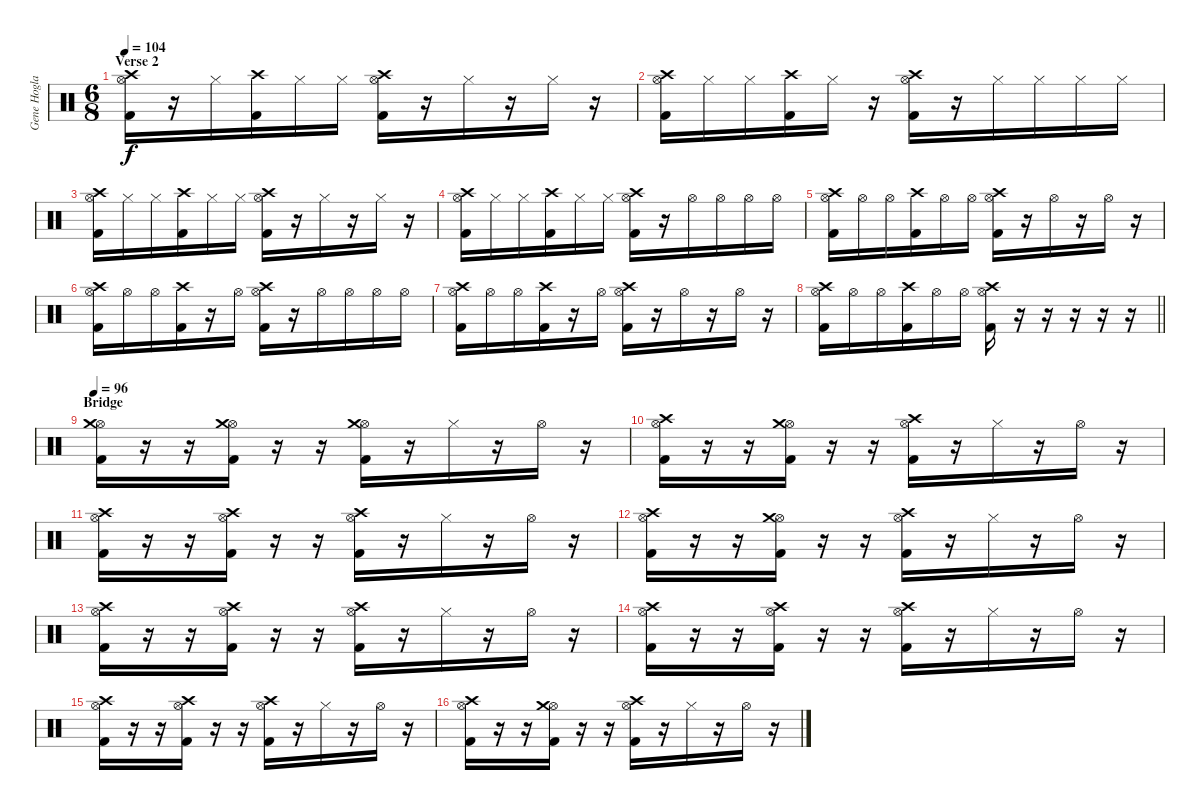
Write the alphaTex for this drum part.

\track ("Gene Hoglan" "Gene Hogla") {instrument percussion}
\staff {score}
\articulation defaults
\ts (6 8)
\section ("" "Verse 2")
\tempo 104
\clef neutral
\ks c
("Hi-Hat (open)" "Crash high (hit)" "Kick (hit) 2").16{dy f} r.16 "Hi-Hat (closed)".16 ("Crash high (hit)" "Kick (hit) 2").16 "Hi-Hat (closed)".16 "Hi-Hat (closed)".16 ("Hi-Hat (open)" "Crash high (hit)" "Kick (hit) 2").16 r.16 "Hi-Hat (closed)".16 r.16 "Hi-Hat (closed)".16 r.16 |
("Hi-Hat (open)" "Crash high (hit)" "Kick (hit) 2").16 "Hi-Hat (closed)".16 "Hi-Hat (closed)".16 ("Crash high (hit)" "Kick (hit) 2").16 "Hi-Hat (closed)".16 r.16 ("Hi-Hat (open)" "Crash high (hit)" "Kick (hit) 2").16 r.16 "Hi-Hat (closed)".16 "Hi-Hat (closed)".16 "Hi-Hat (closed)".16 "Hi-Hat (closed)".16 |
("Hi-Hat (open)" "Crash high (hit)" "Kick (hit) 2").16 "Hi-Hat (closed)".16 "Hi-Hat (closed)".16 ("Crash high (hit)" "Kick (hit) 2").16 "Hi-Hat (closed)".16 "Hi-Hat (closed)".16 ("Hi-Hat (open)" "Crash high (hit)" "Kick (hit) 2").16 r.16 "Hi-Hat (closed)".16 r.16 "Hi-Hat (closed)".16 r.16 |
("Hi-Hat (open)" "Crash high (hit)" "Kick (hit) 2").16 "Hi-Hat (closed)".16 "Hi-Hat (closed)".16 ("Crash high (hit)" "Kick (hit) 2").16 "Hi-Hat (closed)".16 "Hi-Hat (closed)".16 ("Hi-Hat (open)" "Crash high (hit)" "Kick (hit) 2").16 r.16 "Hi-Hat (open)".16 "Hi-Hat (open)".16 "Hi-Hat (open)".16 "Hi-Hat (open)".16 |
("Hi-Hat (open)" "Crash high (hit)" "Kick (hit) 2").16 "Hi-Hat (open)".16 "Hi-Hat (open)".16 ("Crash high (hit)" "Kick (hit) 2").16 "Hi-Hat (open)".16 "Hi-Hat (open)".16 ("Hi-Hat (open)" "Crash high (hit)" "Kick (hit) 2").16 r.16 "Hi-Hat (open)".16 r.16 "Hi-Hat (open)".16 r.16 |
("Hi-Hat (open)" "Crash high (hit)" "Kick (hit) 2").16 "Hi-Hat (open)".16 "Hi-Hat (open)".16 ("Crash high (hit)" "Kick (hit) 2").16 r.16 "Hi-Hat (open)".16 ("Hi-Hat (open)" "Crash high (hit)" "Kick (hit) 2").16 r.16 "Hi-Hat (open)".16 "Hi-Hat (open)".16 "Hi-Hat (open)".16 "Hi-Hat (open)".16 |
("Hi-Hat (open)" "Crash high (hit)" "Kick (hit) 2").16 "Hi-Hat (open)".16 "Hi-Hat (open)".16 ("Crash high (hit)" "Kick (hit) 2").16 r.16 "Hi-Hat (open)".16 ("Hi-Hat (open)" "Crash high (hit)" "Kick (hit) 2").16 r.16 "Hi-Hat (open)".16 r.16 "Hi-Hat (open)".16 r.16 |
\barLineRight lightlight
("Hi-Hat (open)" "Crash high (hit)" "Kick (hit) 2").16 "Hi-Hat (open)".16 "Hi-Hat (open)".16 ("Crash high (hit)" "Kick (hit) 2").16 "Hi-Hat (open)".16 "Hi-Hat (open)".16 ("Hi-Hat (open)" "Crash high (hit)" "Kick (hit) 2").16 r.16 r.16 r.16 r.16 r.16 |
\section ("" "Bridge")
\tempo 96
("Hi-Hat (open)" "Crash medium (hit)" "Kick (hit) 2").16 r.16 r.16 ("Hi-Hat (open)" "Crash medium (hit)" "Kick (hit) 2").16 r.16 r.16 ("Hi-Hat (open)" "Crash medium (hit)" "Kick (hit) 2").16 r.16 "Hi-Hat (closed)".16 r.16 "Hi-Hat (open)".16 r.16 |
("Hi-Hat (open)" "Crash high (hit)" "Kick (hit) 2").16 r.16 r.16 ("Hi-Hat (open)" "Crash medium (hit)" "Kick (hit) 2").16 r.16 r.16 ("Hi-Hat (open)" "Crash high (hit)" "Kick (hit) 2").16 r.16 "Hi-Hat (closed)".16 r.16 "Hi-Hat (open)".16 r.16 |
("Hi-Hat (open)" "Crash high (hit)" "Kick (hit) 2").16 r.16 r.16 ("Hi-Hat (open)" "Crash high (hit)" "Kick (hit) 2").16 r.16 r.16 ("Hi-Hat (open)" "Crash high (hit)" "Kick (hit) 2").16 r.16 "Hi-Hat (closed)".16 r.16 "Hi-Hat (open)".16 r.16 |
("Hi-Hat (open)" "Crash high (hit)" "Kick (hit) 2").16 r.16 r.16 ("Hi-Hat (open)" "Crash medium (hit)" "Kick (hit) 2").16 r.16 r.16 ("Hi-Hat (open)" "Crash high (hit)" "Kick (hit) 2").16 r.16 "Hi-Hat (closed)".16 r.16 "Hi-Hat (open)".16 r.16 |
("Hi-Hat (open)" "Crash high (hit)" "Kick (hit) 2").16 r.16 r.16 ("Hi-Hat (open)" "Crash high (hit)" "Kick (hit) 2").16 r.16 r.16 ("Hi-Hat (open)" "Crash high (hit)" "Kick (hit) 2").16 r.16 "Hi-Hat (closed)".16 r.16 "Hi-Hat (open)".16 r.16 |
("Hi-Hat (open)" "Crash high (hit)" "Kick (hit) 2").16 r.16 r.16 ("Hi-Hat (open)" "Crash high (hit)" "Kick (hit) 2").16 r.16 r.16 ("Hi-Hat (open)" "Crash high (hit)" "Kick (hit) 2").16 r.16 "Hi-Hat (closed)".16 r.16 "Hi-Hat (open)".16 r.16 |
("Hi-Hat (open)" "Crash high (hit)" "Kick (hit) 2").16 r.16 r.16 ("Hi-Hat (open)" "Crash high (hit)" "Kick (hit) 2").16 r.16 r.16 ("Hi-Hat (open)" "Crash high (hit)" "Kick (hit) 2").16 r.16 "Hi-Hat (closed)".16 r.16 "Hi-Hat (open)".16 r.16 |
("Hi-Hat (open)" "Crash high (hit)" "Kick (hit) 2").16 r.16 r.16 ("Hi-Hat (open)" "Crash medium (hit)" "Kick (hit) 2").16 r.16 r.16 ("Hi-Hat (open)" "Crash high (hit)" "Kick (hit) 2").16 r.16 "Hi-Hat (closed)".16 r.16 "Hi-Hat (open)".16 r.16
